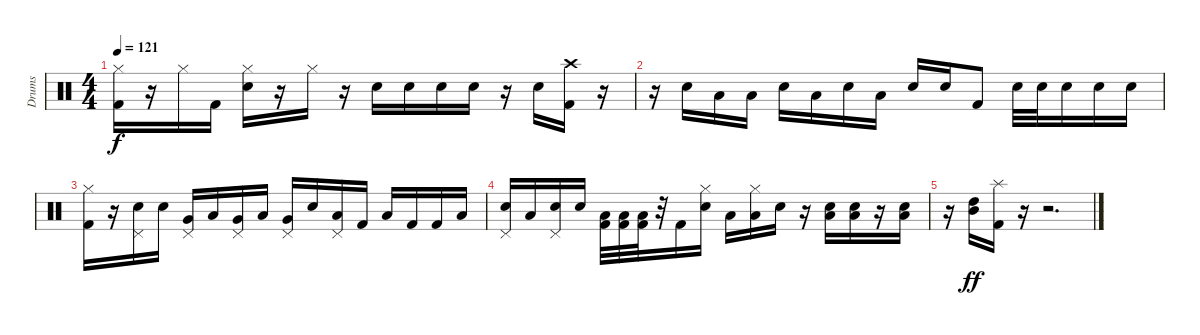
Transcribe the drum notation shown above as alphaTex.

\track ("Drums" "Drums") {instrument percussion}
\staff {score}
\articulation defaults
\ts (4 4)
\tempo 121
\clef neutral
\ks c
("Hi-Hat (closed)" "Kick (hit) 2").16{dy f} r.16 "Hi-Hat (closed)".16 "Kick (hit) 2".16 ("Hi-Hat (closed)" "Snare (hit) 2").16 r.16 "Hi-Hat (closed)".16 r.16 "Snare (hit) 2".16 "Snare (hit) 2".16 "Snare (hit) 2".16 "Snare (hit) 2".16 r.16 "Snare (hit) 2".16 ("Crash high (hit)" "Kick (hit) 2").16 r.16 |
r.16 "Snare (hit) 2".16 "Low Tom (hit)".16 "Low Tom (hit)".16 "Snare (hit) 2".16 "Low Tom (hit)".16 "Snare (hit) 2".16 "Low Tom (hit)".16 "Snare (hit) 2".16 "Snare (hit) 2".16 "Kick (hit) 2".8 "Snare (hit) 2".32 "Snare (hit) 2".32 "Snare (hit) 2".16 "Snare (hit) 2".16 "Snare (hit) 2".16 |
("Hi-Hat (closed)" "Kick (hit) 2").16 r.16 ("Pedal Hi-Hat (hit)" "Snare (hit) 2").16 "Snare (hit) 2".16 ("Pedal Hi-Hat (hit)" "Very Low Tom (hit)").16 "Low Tom (hit)".16 ("Pedal Hi-Hat (hit)" "Very Low Tom (hit)").16 "Low Tom (hit)".16 ("Pedal Hi-Hat (hit)" "Very Low Tom (hit)").16 "Snare (hit) 2".16 ("Pedal Hi-Hat (hit)" "Low Tom (hit)").16 "Kick (hit) 2".16 "Low Tom (hit)".16 "Kick (hit) 2".16 "Kick (hit) 2".16 "Low Tom (hit)".16 |
("Pedal Hi-Hat (hit)" "Snare (hit) 2").16 "Low Tom (hit)".16 ("Pedal Hi-Hat (hit)" "Snare (hit) 2").16 "Snare (hit) 2".16 ("Low Tom (hit)" "Kick (hit) 2").32 ("Low Tom (hit)" "Kick (hit) 2").32 ("Low Tom (hit)" "Kick (hit) 2").32 r.32 "Kick (hit) 2".16 ("Hi-Hat (closed)" "Snare (hit) 2").16 "Low Tom (hit)".16 ("Hi-Hat (closed)" "Low Tom (hit)").16 "Snare (hit) 2".16 r.16 ("Low Tom (hit)" "Snare (hit) 2").16 ("Low Tom (hit)" "Snare (hit) 2").16 r.16 ("Low Tom (hit)" "Snare (hit) 2").16 |
r.16 ("Mid Tom (hit)" "High Tom (hit)").16{dy ff} ("Splash (hit)" "Kick (hit) 2").16 r.16 r.2{d}
